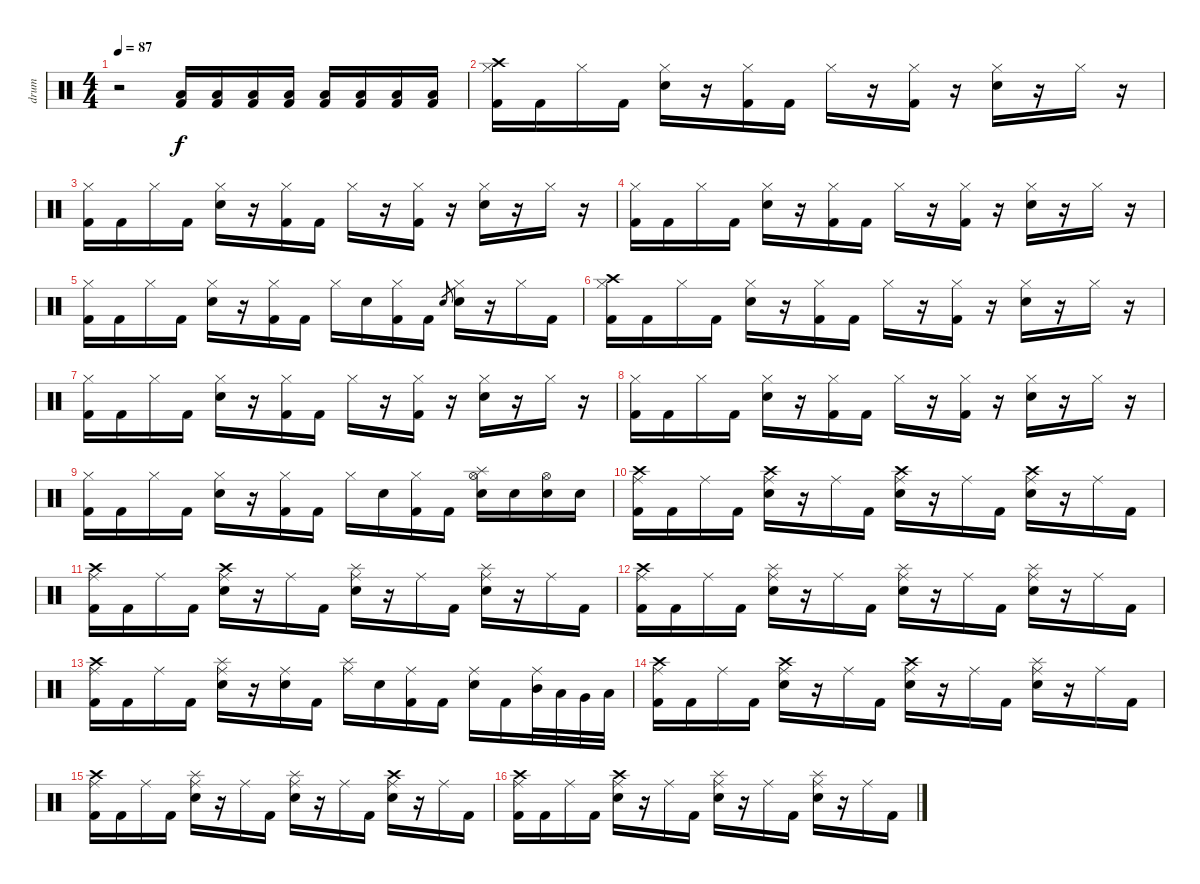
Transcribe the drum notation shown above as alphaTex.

\track ("drum" "drum") {instrument percussion}
\staff {score}
\articulation defaults
\ts (4 4)
\tempo 87
\clef neutral
\ks c
r.2{dy f} ("Low Floor Tom (hit)" "Kick (hit) 2").16 ("Low Floor Tom (hit)" "Kick (hit) 2").16 ("Low Floor Tom (hit)" "Kick (hit) 2").16 ("Low Floor Tom (hit)" "Kick (hit) 2").16 ("Low Floor Tom (hit)" "Kick (hit) 2").16 ("Low Floor Tom (hit)" "Kick (hit) 2").16 ("Low Floor Tom (hit)" "Kick (hit) 2").16 ("Low Floor Tom (hit)" "Kick (hit) 2").16 |
("Crash high (hit)" "Hi-Hat (closed)" "Kick (hit) 2").16 "Kick (hit) 2".16 "Hi-Hat (closed)".16 "Kick (hit) 2".16 ("Hi-Hat (closed)" "Electric Snare (hit)").16 r.16 ("Hi-Hat (closed)" "Kick (hit) 2").16 "Kick (hit) 2".16 "Hi-Hat (closed)".16 r.16 ("Hi-Hat (closed)" "Kick (hit) 2").16 r.16 ("Hi-Hat (closed)" "Electric Snare (hit)").16 r.16 "Hi-Hat (closed)".16 r.16 |
("Hi-Hat (closed)" "Kick (hit) 2").16 "Kick (hit) 2".16 "Hi-Hat (closed)".16 "Kick (hit) 2".16 ("Hi-Hat (closed)" "Electric Snare (hit)").16 r.16 ("Hi-Hat (closed)" "Kick (hit) 2").16 "Kick (hit) 2".16 "Hi-Hat (closed)".16 r.16 ("Hi-Hat (closed)" "Kick (hit) 2").16 r.16 ("Hi-Hat (closed)" "Electric Snare (hit)").16 r.16 "Hi-Hat (closed)".16 r.16 |
("Hi-Hat (closed)" "Kick (hit) 2").16 "Kick (hit) 2".16 "Hi-Hat (closed)".16 "Kick (hit) 2".16 ("Hi-Hat (closed)" "Electric Snare (hit)").16 r.16 ("Hi-Hat (closed)" "Kick (hit) 2").16 "Kick (hit) 2".16 "Hi-Hat (closed)".16 r.16 ("Hi-Hat (closed)" "Kick (hit) 2").16 r.16 ("Hi-Hat (closed)" "Electric Snare (hit)").16 r.16 "Hi-Hat (closed)".16 r.16 |
("Hi-Hat (closed)" "Kick (hit) 2").16 "Kick (hit) 2".16 "Hi-Hat (closed)".16 "Kick (hit) 2".16 ("Hi-Hat (closed)" "Electric Snare (hit)").16 r.16 ("Hi-Hat (closed)" "Kick (hit) 2").16 "Kick (hit) 2".16 "Hi-Hat (closed)".16 "Electric Snare (hit)".16 ("Hi-Hat (closed)" "Kick (hit) 2").16 "Kick (hit) 2".16 "Electric Snare (hit)".8{gr} ("Hi-Hat (closed)" "Electric Snare (hit)").16 r.16 "Hi-Hat (closed)".16 "Kick (hit) 2".16 |
("Crash high (hit)" "Hi-Hat (closed)" "Kick (hit) 2").16 "Kick (hit) 2".16 "Hi-Hat (closed)".16 "Kick (hit) 2".16 ("Hi-Hat (closed)" "Electric Snare (hit)").16 r.16 ("Hi-Hat (closed)" "Kick (hit) 2").16 "Kick (hit) 2".16 "Hi-Hat (closed)".16 r.16 ("Hi-Hat (closed)" "Kick (hit) 2").16 r.16 ("Hi-Hat (closed)" "Electric Snare (hit)").16 r.16 "Hi-Hat (closed)".16 r.16 |
("Hi-Hat (closed)" "Kick (hit) 2").16 "Kick (hit) 2".16 "Hi-Hat (closed)".16 "Kick (hit) 2".16 ("Hi-Hat (closed)" "Electric Snare (hit)").16 r.16 ("Hi-Hat (closed)" "Kick (hit) 2").16 "Kick (hit) 2".16 "Hi-Hat (closed)".16 r.16 ("Hi-Hat (closed)" "Kick (hit) 2").16 r.16 ("Hi-Hat (closed)" "Electric Snare (hit)").16 r.16 "Hi-Hat (closed)".16 r.16 |
("Hi-Hat (closed)" "Kick (hit) 2").16 "Kick (hit) 2".16 "Hi-Hat (closed)".16 "Kick (hit) 2".16 ("Hi-Hat (closed)" "Electric Snare (hit)").16 r.16 ("Hi-Hat (closed)" "Kick (hit) 2").16 "Kick (hit) 2".16 "Hi-Hat (closed)".16 r.16 ("Hi-Hat (closed)" "Kick (hit) 2").16 r.16 ("Hi-Hat (closed)" "Electric Snare (hit)").16 r.16 "Hi-Hat (closed)".16 r.16 |
("Hi-Hat (closed)" "Kick (hit) 2").16 "Kick (hit) 2".16 "Hi-Hat (closed)".16 "Kick (hit) 2".16 ("Hi-Hat (closed)" "Electric Snare (hit)").16 r.16 ("Hi-Hat (closed)" "Kick (hit) 2").16 "Kick (hit) 2".16 "Hi-Hat (closed)".16 "Electric Snare (hit)".16 ("Hi-Hat (closed)" "Kick (hit) 2").16 "Kick (hit) 2".16 ("Splash (hit)" "Hi-Hat (open)" "Electric Snare (hit)").16 "Electric Snare (hit)".16 ("Hi-Hat (open)" "Electric Snare (hit)").16 "Electric Snare (hit)".16 |
("Crash high (hit)" "Ride (middle)" "Kick (hit) 2").16 "Kick (hit) 2".16 "Ride (middle)".16 "Kick (hit) 2".16 ("Crash high (hit)" "Ride (middle)" "Electric Snare (hit)").16 r.16 "Ride (middle)".16 "Kick (hit) 2".16 ("Crash high (hit)" "Ride (middle)" "Electric Snare (hit)").16 r.16 "Ride (middle)".16 "Kick (hit) 2".16 ("Crash high (hit)" "Ride (middle)" "Electric Snare (hit)").16 r.16 "Ride (middle)".16 "Kick (hit) 2".16 |
("Crash high (hit)" "Ride (middle)" "Kick (hit) 2").16 "Kick (hit) 2".16 "Ride (middle)".16 "Kick (hit) 2".16 ("Crash high (hit)" "Ride (middle)" "Electric Snare (hit)").16 r.16 "Ride (middle)".16 "Kick (hit) 2".16 ("Splash (hit)" "Ride (middle)" "Electric Snare (hit)").16 r.16 "Ride (middle)".16 "Kick (hit) 2".16 ("Splash (hit)" "Ride (middle)" "Electric Snare (hit)").16 r.16 "Ride (middle)".16 "Kick (hit) 2".16 |
("Crash high (hit)" "Ride (middle)" "Kick (hit) 2").16 "Kick (hit) 2".16 "Ride (middle)".16 "Kick (hit) 2".16 ("Splash (hit)" "Ride (middle)" "Electric Snare (hit)").16 r.16 "Ride (middle)".16 "Kick (hit) 2".16 ("Splash (hit)" "Ride (middle)" "Electric Snare (hit)").16 r.16 "Ride (middle)".16 "Kick (hit) 2".16 ("Splash (hit)" "Ride (middle)" "Electric Snare (hit)").16 r.16 "Ride (middle)".16 "Kick (hit) 2".16 |
("Crash high (hit)" "Ride (middle)" "Kick (hit) 2").16 "Kick (hit) 2".16 "Ride (middle)".16 "Kick (hit) 2".16 ("Splash (hit)" "Ride (middle)" "Electric Snare (hit)").16 r.16 ("Ride (middle)" "Electric Snare (hit)").16 "Kick (hit) 2".16 ("Splash (hit)" "Ride (middle)").16 "Electric Snare (hit)".16 ("Ride (middle)" "Kick (hit) 2").16 "Kick (hit) 2".16 ("Ride (middle)" "Electric Snare (hit)").16 "Kick (hit) 2".16 ("Ride (middle)" "Mid Tom (hit)").32 "Low Tom (hit)".32 "Very Low Tom (hit)".32 "Low Floor Tom (hit)".32 |
("Crash high (hit)" "Ride (middle)" "Kick (hit) 2").16 "Kick (hit) 2".16 "Ride (middle)".16 "Kick (hit) 2".16 ("Crash high (hit)" "Ride (middle)" "Electric Snare (hit)").16 r.16 "Ride (middle)".16 "Kick (hit) 2".16 ("Crash high (hit)" "Ride (middle)" "Electric Snare (hit)").16 r.16 "Ride (middle)".16 "Kick (hit) 2".16 ("Splash (hit)" "Ride (middle)" "Electric Snare (hit)").16 r.16 "Ride (middle)".16 "Kick (hit) 2".16 |
("Crash high (hit)" "Ride (middle)" "Kick (hit) 2").16 "Kick (hit) 2".16 "Ride (middle)".16 "Kick (hit) 2".16 ("Splash (hit)" "Ride (middle)" "Electric Snare (hit)").16 r.16 "Ride (middle)".16 "Kick (hit) 2".16 ("Splash (hit)" "Ride (middle)" "Electric Snare (hit)").16 r.16 "Ride (middle)".16 "Kick (hit) 2".16 ("Crash high (hit)" "Ride (middle)" "Electric Snare (hit)").16 r.16 "Ride (middle)".16 "Kick (hit) 2".16 |
("Crash high (hit)" "Ride (middle)" "Kick (hit) 2").16 "Kick (hit) 2".16 "Ride (middle)".16 "Kick (hit) 2".16 ("Crash high (hit)" "Ride (middle)" "Electric Snare (hit)").16 r.16 "Ride (middle)".16 "Kick (hit) 2".16 ("Splash (hit)" "Ride (middle)" "Electric Snare (hit)").16 r.16 "Ride (middle)".16 "Kick (hit) 2".16 ("Splash (hit)" "Ride (middle)" "Electric Snare (hit)").16 r.16 "Ride (middle)".16 "Kick (hit) 2".16
